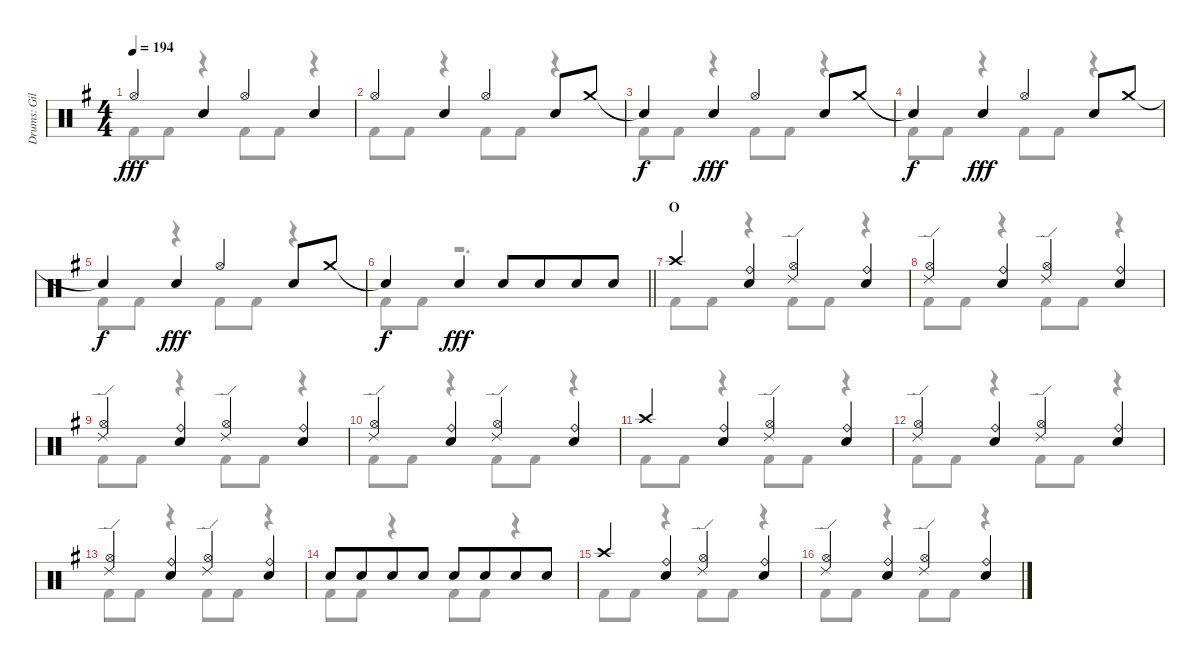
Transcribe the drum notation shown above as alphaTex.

\track ("Drums: Gil" "Drums: Gil") {instrument percussion}
\staff {score}
\articulation defaults
\voice
\ts (4 4)
\tempo 194
\clef neutral
\ks g "Hi-Hat (open)".4{dy fff} "Snare (hit) 2".4 "Hi-Hat (open)".4 "Snare (hit) 2".4
|
"Hi-Hat (open)".4 "Snare (hit) 2".4 "Hi-Hat (open)".4 "Snare (hit) 2".8 "Crash medium (hit)".8 |
"Snare (hit)"{t}.4{dy f} "Snare (hit) 2".4{dy fff} "Hi-Hat (open)".4 "Snare (hit) 2".8 "Crash medium (hit)".8 |
"Snare (hit)"{t}.4{dy f} "Snare (hit) 2".4{dy fff} "Hi-Hat (open)".4 "Snare (hit) 2".8 "Crash medium (hit)".8 |
"Snare (hit)"{t}.4{dy f} "Snare (hit) 2".4{dy fff} "Hi-Hat (open)".4 "Snare (hit) 2".8 "Crash medium (hit)".8 |
\barLineRight lightlight "Snare (hit)"{t}.4{dy f} "Snare (hit) 2".4{dy fff} "Snare (hit) 2".8 "Snare (hit) 2".8{beam merge} "Snare (hit) 2".8 "Snare (hit) 2".8
|
\section ("" "O")
"Crash high (hit)".4 ("Ride (bell)" "Snare (hit) 2").4 ("Ride (edge) 2" "Hi-Hat (open)").4 ("Ride (bell)" "Snare (hit) 2").4 |
("Ride (edge) 2" "Hi-Hat (open)").4 ("Ride (bell)" "Snare (hit) 2").4 ("Ride (edge) 2" "Hi-Hat (open)").4 ("Ride (bell)" "Snare (hit) 2").4 |
("Ride (edge) 2" "Hi-Hat (open)").4 ("Ride (bell)" "Snare (hit) 2").4 ("Ride (edge) 2" "Hi-Hat (open)").4 ("Ride (bell)" "Snare (hit) 2").4 |
("Ride (edge) 2" "Hi-Hat (open)").4 ("Ride (bell)" "Snare (hit) 2").4 ("Ride (edge) 2" "Hi-Hat (open)").4 ("Ride (bell)" "Snare (hit) 2").4 |
"Crash high (hit)".4 ("Ride (bell)" "Snare (hit) 2").4 ("Ride (edge) 2" "Hi-Hat (open)").4 ("Ride (bell)" "Snare (hit) 2").4 |
("Ride (edge) 2" "Hi-Hat (open)").4 ("Ride (bell)" "Snare (hit) 2").4 ("Ride (edge) 2" "Hi-Hat (open)").4 ("Ride (bell)" "Snare (hit) 2").4 |
("Ride (edge) 2" "Hi-Hat (open)").4 ("Ride (bell)" "Snare (hit) 2").4 ("Ride (edge) 2" "Hi-Hat (open)").4 ("Ride (bell)" "Snare (hit) 2").4 |
"Snare (hit) 2".8 "Snare (hit) 2".8{beam merge} "Snare (hit) 2".8 "Snare (hit) 2".8 "Snare (hit) 2".8 "Snare (hit) 2".8{beam merge} "Snare (hit) 2".8 "Snare (hit) 2".8 |
"Crash high (hit)".4 ("Ride (bell)" "Snare (hit) 2").4 ("Ride (edge) 2" "Hi-Hat (open)").4 ("Ride (bell)" "Snare (hit) 2").4 |
("Ride (edge) 2" "Hi-Hat (open)").4 ("Ride (bell)" "Snare (hit) 2").4 ("Ride (edge) 2" "Hi-Hat (open)").4 ("Ride (bell)" "Snare (hit) 2").4
\voice
\clef neutral
\ottava regular
\simile none
\ks g "Kick (hit) 2".8{dy fff} "Kick (hit) 2".8
r.4 "Kick (hit) 2".8 "Kick (hit) 2".8 r.4 |
"Kick (hit) 2".8 "Kick (hit) 2".8 r.4 "Kick (hit) 2".8 "Kick (hit) 2".8 r.4 |
"Kick (hit) 2".8 "Kick (hit) 2".8 r.4 "Kick (hit) 2".8 "Kick (hit) 2".8 r.4 |
"Kick (hit) 2".8 "Kick (hit) 2".8 r.4 "Kick (hit) 2".8 "Kick (hit) 2".8 r.4 |
"Kick (hit) 2".8 "Kick (hit) 2".8 r.4 "Kick (hit) 2".8 "Kick (hit) 2".8 r.4 |
\barLineRight lightlight "Kick (hit) 2".8 "Kick (hit) 2".8
r.2{d} |
"Kick (hit) 2".8 "Kick (hit) 2".8 r.4 "Kick (hit) 2".8 "Kick (hit) 2".8 r.4 |
"Kick (hit) 2".8 "Kick (hit) 2".8 r.4 "Kick (hit) 2".8 "Kick (hit) 2".8 r.4 |
"Kick (hit) 2".8 "Kick (hit) 2".8 r.4 "Kick (hit) 2".8 "Kick (hit) 2".8 r.4 |
"Kick (hit) 2".8 "Kick (hit) 2".8 r.4 "Kick (hit) 2".8 "Kick (hit) 2".8 r.4 |
"Kick (hit) 2".8 "Kick (hit) 2".8 r.4 "Kick (hit) 2".8 "Kick (hit) 2".8 r.4 |
"Kick (hit) 2".8 "Kick (hit) 2".8 r.4 "Kick (hit) 2".8 "Kick (hit) 2".8 r.4 |
"Kick (hit) 2".8 "Kick (hit) 2".8 r.4 "Kick (hit) 2".8 "Kick (hit) 2".8 r.4 |
"Kick (hit) 2".8 "Kick (hit) 2".8 r.4 "Kick (hit) 2".8 "Kick (hit) 2".8 r.4 |
"Kick (hit) 2".8 "Kick (hit) 2".8 r.4 "Kick (hit) 2".8 "Kick (hit) 2".8 r.4 |
"Kick (hit) 2".8 "Kick (hit) 2".8 r.4 "Kick (hit) 2".8 "Kick (hit) 2".8 r.4
